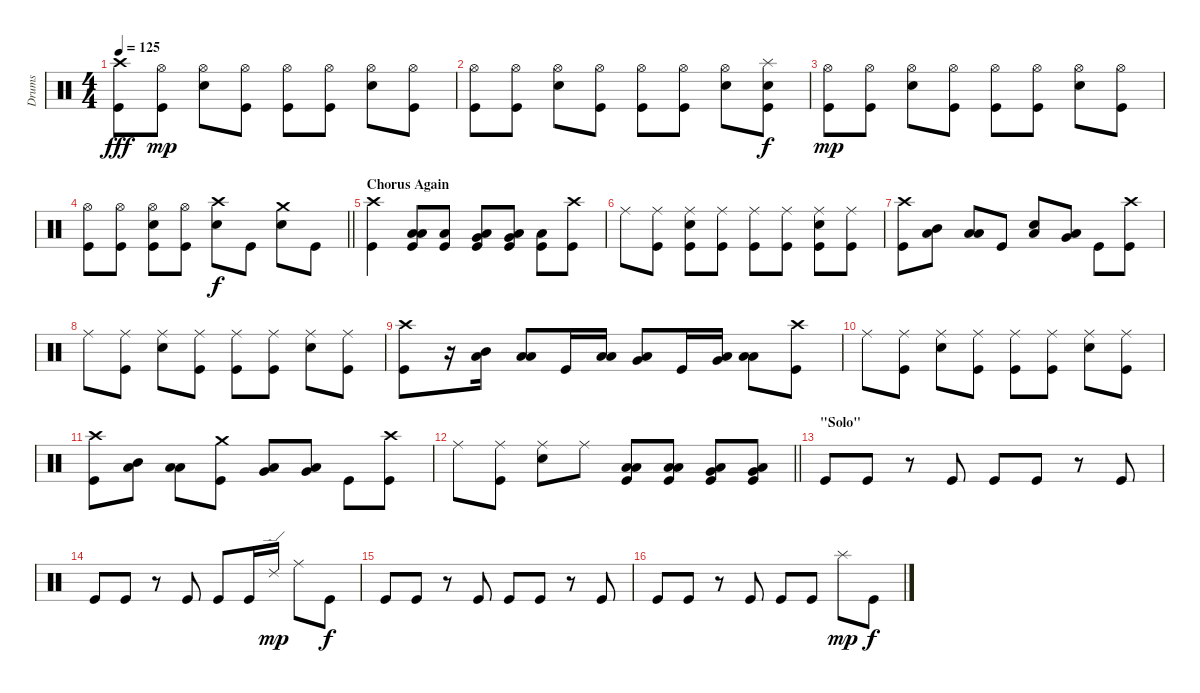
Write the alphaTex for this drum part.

\track ("Drums" "Drums") {instrument percussion}
\staff {score}
\articulation defaults
\ts (4 4)
\tempo 125
\clef neutral
\ks c
("Crash high (hit)" "Kick (hit)").8{dy fff} ("Hi-Hat (open)" "Kick (hit)").8{dy mp} ("Hi-Hat (open)" "Snare (hit) 2").8 ("Hi-Hat (open)" "Kick (hit)").8 ("Hi-Hat (open)" "Kick (hit)").8 ("Hi-Hat (open)" "Kick (hit)").8 ("Hi-Hat (open)" "Snare (hit) 2").8 ("Hi-Hat (open)" "Kick (hit)").8 |
("Hi-Hat (open)" "Kick (hit)").8 ("Hi-Hat (open)" "Kick (hit)").8 ("Hi-Hat (open)" "Snare (hit) 2").8 ("Hi-Hat (open)" "Kick (hit)").8 ("Hi-Hat (open)" "Kick (hit)").8 ("Hi-Hat (open)" "Kick (hit)").8 ("Hi-Hat (open)" "Snare (hit) 2").8 ("Splash (hit)" "Snare (hit) 2" "Kick (hit)").8{dy f} |
("Hi-Hat (open)" "Kick (hit)").8{dy mp} ("Hi-Hat (open)" "Kick (hit)").8 ("Hi-Hat (open)" "Snare (hit) 2").8 ("Hi-Hat (open)" "Kick (hit)").8 ("Hi-Hat (open)" "Kick (hit)").8 ("Hi-Hat (open)" "Kick (hit)").8 ("Hi-Hat (open)" "Snare (hit) 2").8 ("Hi-Hat (open)" "Kick (hit)").8 |
\barLineRight lightlight
("Hi-Hat (open)" "Kick (hit)").8 ("Hi-Hat (open)" "Kick (hit)").8 ("Hi-Hat (open)" "Snare (hit) 2" "Kick (hit)").8 ("Hi-Hat (open)" "Kick (hit)").8 ("Crash high (hit)" "Snare (hit) 2").8{dy f} "Kick (hit)".8 ("Crash medium (hit)" "Snare (hit) 2").8 "Kick (hit)".8 |
\section ("" "Chorus Again")
("Crash high (hit)" "Kick (hit)").4 ("Low Tom (hit)" "Low Floor Tom (hit)" "Kick (hit)").8 ("Low Floor Tom (hit)" "Kick (hit)").8 ("Very Low Tom (hit)" "Low Floor Tom (hit)" "Kick (hit)").8 ("Very Low Tom (hit)" "Low Floor Tom (hit)" "Kick (hit)").8 ("Low Floor Tom (hit)" "Kick (hit)").8 ("Crash high (hit)" "Kick (hit)").8 |
"Ride (middle)".8 ("Ride (middle)" "Kick (hit)").8 ("Ride (middle)" "Snare (hit) 2" "Kick (hit)").8 ("Ride (middle)" "Kick (hit)").8 ("Ride (middle)" "Kick (hit)").8 ("Ride (middle)" "Kick (hit)").8 ("Ride (middle)" "Snare (hit) 2" "Kick (hit)").8 ("Ride (middle)" "Kick (hit)").8 |
("Crash high (hit)" "Kick (hit)").8 ("Mid Tom (hit)" "Low Floor Tom (hit)").8 ("Low Tom (hit)" "Low Floor Tom (hit)").8 "Kick (hit)".8 ("Snare (hit) 2" "Low Floor Tom (hit)").8 ("Very Low Tom (hit)" "Low Floor Tom (hit)").8 "Kick (hit)".8 ("Crash high (hit)" "Kick (hit)").8 |
"Ride (middle)".8 ("Ride (middle)" "Kick (hit)").8 ("Ride (middle)" "Snare (hit) 2").8 ("Ride (middle)" "Kick (hit)").8 ("Ride (middle)" "Kick (hit)").8 ("Ride (middle)" "Kick (hit)").8 ("Ride (middle)" "Snare (hit) 2").8 ("Ride (middle)" "Kick (hit)").8 |
("Crash high (hit)" "Kick (hit)").8 r.16 ("Mid Tom (hit)" "Low Floor Tom (hit)").16 ("Low Tom (hit)" "Low Floor Tom (hit)").8 "Kick (hit)".16 ("Low Tom (hit)" "Low Floor Tom (hit)").16 ("Very Low Tom (hit)" "Low Floor Tom (hit)").8 "Kick (hit)".16 ("Very Low Tom (hit)" "Low Floor Tom (hit)").16 ("Low Floor Tom (hit)" "Low Floor Tom (hit)").8 ("Crash high (hit)" "Kick (hit)").8 |
"Ride (middle)".8 ("Ride (middle)" "Kick (hit)").8 ("Ride (middle)" "Snare (hit) 2").8 ("Ride (middle)" "Kick (hit)").8 ("Ride (middle)" "Kick (hit)").8 ("Ride (middle)" "Kick (hit)").8 ("Ride (middle)" "Snare (hit) 2").8 ("Ride (middle)" "Kick (hit)").8 |
("Crash high (hit)" "Kick (hit)").8 ("Mid Tom (hit)" "Low Floor Tom (hit)").8 ("Low Tom (hit)" "Low Floor Tom (hit)").8 ("Crash medium (hit)" "Kick (hit)").8 ("Very Low Tom (hit)" "Low Floor Tom (hit)").8 ("Very Low Tom (hit)" "Low Floor Tom (hit)").8 "Kick (hit)".8 ("Crash high (hit)" "Kick (hit)").8 |
\barLineRight lightlight "Ride (middle)".8
("Ride (middle)" "Kick (hit)").8 ("Ride (middle)" "Snare (hit) 2").8 "Ride (middle)".8 ("Low Tom (hit)" "Low Floor Tom (hit)" "Kick (hit)").8 ("Low Tom (hit)" "Low Floor Tom (hit)" "Kick (hit)").8 ("Very Low Tom (hit)" "Low Floor Tom (hit)" "Kick (hit)").8 ("Very Low Tom (hit)" "Low Floor Tom (hit)" "Kick (hit)").8 |
\section ("" "\"Solo\"")
"Kick (hit)".8 "Kick (hit)".8 r.8 "Kick (hit)".8 "Kick (hit)".8 "Kick (hit)".8 r.8 "Kick (hit)".8 |
"Kick (hit)".8 "Kick (hit)".8 r.8 "Kick (hit)".8 "Kick (hit)".8 "Kick (hit)".16 "Ride (edge) 2".16{dy mp} "Ride (middle)".8 "Kick (hit)".8{dy f} |
"Kick (hit)".8 "Kick (hit)".8 r.8 "Kick (hit)".8 "Kick (hit)".8 "Kick (hit)".8 r.8 "Kick (hit)".8 |
"Kick (hit)".8 "Kick (hit)".8 r.8 "Kick (hit)".8 "Kick (hit)".8 "Kick (hit)".8 "Splash (hit)".8{dy mp} "Kick (hit)".8{dy f}
